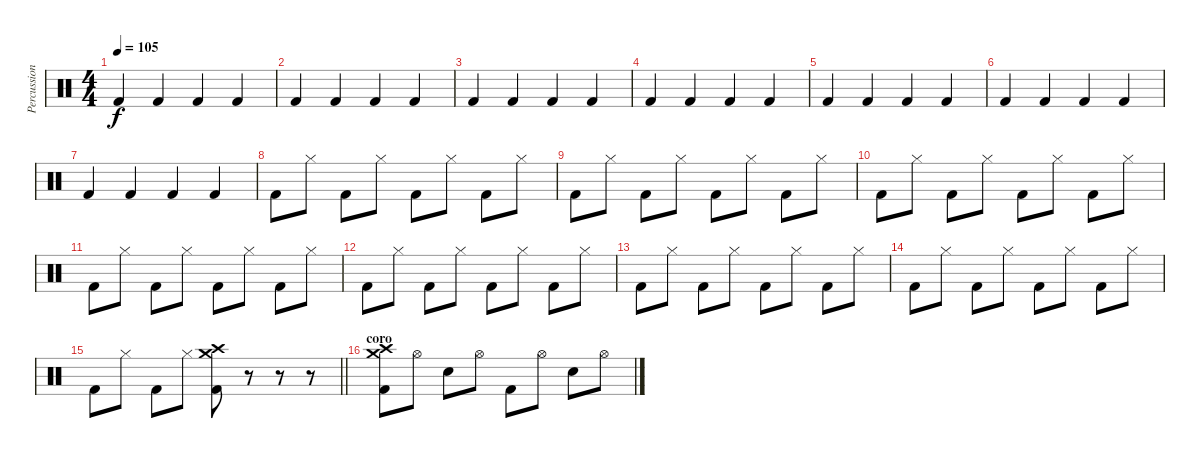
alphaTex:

\track ("Percussion" "Percussion") {instrument percussion}
\staff {score}
\articulation defaults
\ts (4 4)
\tempo 105
\clef neutral
\ks c "Kick (hit) 2".4{dy f} "Kick (hit) 2".4 "Kick (hit) 2".4 "Kick (hit) 2".4
|
"Kick (hit) 2".4 "Kick (hit) 2".4 "Kick (hit) 2".4 "Kick (hit) 2".4 |
"Kick (hit) 2".4 "Kick (hit) 2".4 "Kick (hit) 2".4 "Kick (hit) 2".4 |
"Kick (hit) 2".4 "Kick (hit) 2".4 "Kick (hit) 2".4 "Kick (hit) 2".4 |
"Kick (hit) 2".4 "Kick (hit) 2".4 "Kick (hit) 2".4 "Kick (hit) 2".4 |
"Kick (hit) 2".4 "Kick (hit) 2".4 "Kick (hit) 2".4 "Kick (hit) 2".4 |
"Kick (hit) 2".4 "Kick (hit) 2".4 "Kick (hit) 2".4 "Kick (hit) 2".4 |
"Kick (hit) 2".8 "Hi-Hat (closed)".8 "Kick (hit) 2".8 "Hi-Hat (closed)".8 "Kick (hit) 2".8 "Hi-Hat (closed)".8 "Kick (hit) 2".8 "Hi-Hat (closed)".8 |
"Kick (hit) 2".8 "Hi-Hat (closed)".8 "Kick (hit) 2".8 "Hi-Hat (closed)".8 "Kick (hit) 2".8 "Hi-Hat (closed)".8 "Kick (hit) 2".8 "Hi-Hat (closed)".8 |
"Kick (hit) 2".8 "Hi-Hat (closed)".8 "Kick (hit) 2".8 "Hi-Hat (closed)".8 "Kick (hit) 2".8 "Hi-Hat (closed)".8 "Kick (hit) 2".8 "Hi-Hat (closed)".8 |
"Kick (hit) 2".8 "Hi-Hat (closed)".8 "Kick (hit) 2".8 "Hi-Hat (closed)".8 "Kick (hit) 2".8 "Hi-Hat (closed)".8 "Kick (hit) 2".8 "Hi-Hat (closed)".8 |
"Kick (hit) 2".8 "Hi-Hat (closed)".8 "Kick (hit) 2".8 "Hi-Hat (closed)".8 "Kick (hit) 2".8 "Hi-Hat (closed)".8 "Kick (hit) 2".8 "Hi-Hat (closed)".8 |
"Kick (hit) 2".8 "Hi-Hat (closed)".8 "Kick (hit) 2".8 "Hi-Hat (closed)".8 "Kick (hit) 2".8 "Hi-Hat (closed)".8 "Kick (hit) 2".8 "Hi-Hat (closed)".8 |
"Kick (hit) 2".8 "Hi-Hat (closed)".8 "Kick (hit) 2".8 "Hi-Hat (closed)".8 "Kick (hit) 2".8 "Hi-Hat (closed)".8 "Kick (hit) 2".8 "Hi-Hat (closed)".8 |
\barLineRight lightlight "Kick (hit) 2".8 "Hi-Hat (closed)".8 "Kick (hit) 2".8 "Hi-Hat (closed)".8
("Crash high (hit)" "Crash medium (hit)" "Kick (hit) 2").8 r.8 r.8 r.8 |
\section ("" "coro")
("Crash high (hit)" "Crash medium (hit)" "Kick (hit) 2").8 "Hi-Hat (open)".8 "Snare (hit) 2".8 "Hi-Hat (open)".8 "Kick (hit) 2".8 "Hi-Hat (open)".8 "Snare (hit) 2".8 "Hi-Hat (open)".8
